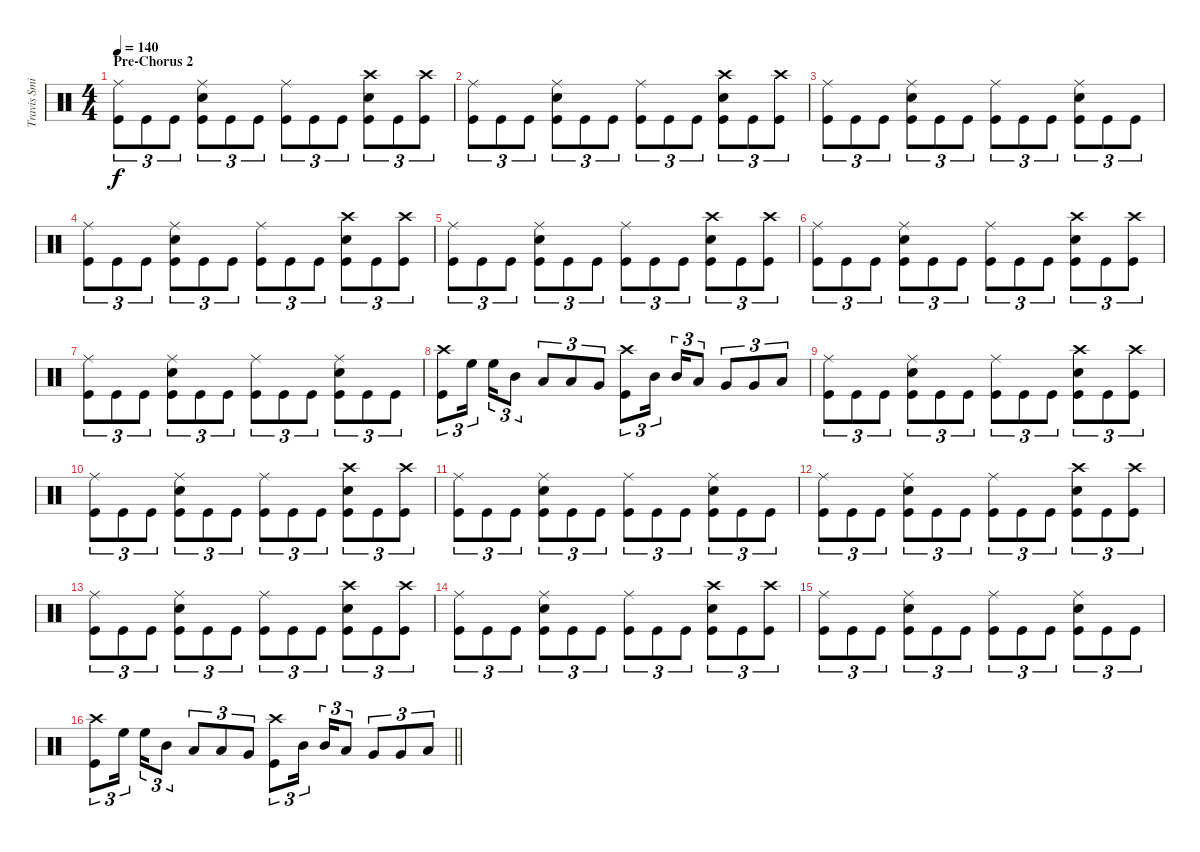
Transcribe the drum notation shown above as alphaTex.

\track ("Travis Smith" "Travis Smi") {instrument percussion}
\staff {score}
\articulation defaults
\ts (4 4)
\section ("" "Pre-Chorus 2")
\tempo 140
\clef neutral
\ks c
("Ride (middle)" "Kick (hit)").8{tu (3 2) dy f} "Kick (hit)".8{tu (3 2)} "Kick (hit)".8{tu (3 2)} ("Ride (middle)" "Snare (hit) 2" "Kick (hit)").8{tu (3 2)} "Kick (hit)".8{tu (3 2)} "Kick (hit)".8{tu (3 2)} ("Ride (middle)" "Kick (hit)").8{tu (3 2)} "Kick (hit)".8{tu (3 2)} "Kick (hit)".8{tu (3 2)} ("Crash high (hit)" "Snare (hit) 2" "Kick (hit)").8{tu (3 2)} "Kick (hit)".8{tu (3 2)} ("Crash high (hit)" "Kick (hit)").8{tu (3 2)} |
("Ride (middle)" "Kick (hit)").8{tu (3 2)} "Kick (hit)".8{tu (3 2)} "Kick (hit)".8{tu (3 2)} ("Ride (middle)" "Snare (hit) 2" "Kick (hit)").8{tu (3 2)} "Kick (hit)".8{tu (3 2)} "Kick (hit)".8{tu (3 2)} ("Ride (middle)" "Kick (hit)").8{tu (3 2)} "Kick (hit)".8{tu (3 2)} "Kick (hit)".8{tu (3 2)} ("Crash high (hit)" "Snare (hit) 2" "Kick (hit)").8{tu (3 2)} "Kick (hit)".8{tu (3 2)} ("Crash high (hit)" "Kick (hit)").8{tu (3 2)} |
("Ride (middle)" "Kick (hit)").8{tu (3 2)} "Kick (hit)".8{tu (3 2)} "Kick (hit)".8{tu (3 2)} ("Ride (middle)" "Snare (hit) 2" "Kick (hit)").8{tu (3 2)} "Kick (hit)".8{tu (3 2)} "Kick (hit)".8{tu (3 2)} ("Ride (middle)" "Kick (hit)").8{tu (3 2)} "Kick (hit)".8{tu (3 2)} "Kick (hit)".8{tu (3 2)} ("Ride (middle)" "Snare (hit) 2" "Kick (hit)").8{tu (3 2)} "Kick (hit)".8{tu (3 2)} "Kick (hit)".8{tu (3 2)} |
("Ride (middle)" "Kick (hit)").8{tu (3 2)} "Kick (hit)".8{tu (3 2)} "Kick (hit)".8{tu (3 2)} ("Ride (middle)" "Snare (hit) 2" "Kick (hit)").8{tu (3 2)} "Kick (hit)".8{tu (3 2)} "Kick (hit)".8{tu (3 2)} ("Ride (middle)" "Kick (hit)").8{tu (3 2)} "Kick (hit)".8{tu (3 2)} "Kick (hit)".8{tu (3 2)} ("Crash high (hit)" "Snare (hit) 2" "Kick (hit)").8{tu (3 2)} "Kick (hit)".8{tu (3 2)} ("Crash high (hit)" "Kick (hit)").8{tu (3 2)} |
("Ride (middle)" "Kick (hit)").8{tu (3 2)} "Kick (hit)".8{tu (3 2)} "Kick (hit)".8{tu (3 2)} ("Ride (middle)" "Snare (hit) 2" "Kick (hit)").8{tu (3 2)} "Kick (hit)".8{tu (3 2)} "Kick (hit)".8{tu (3 2)} ("Ride (middle)" "Kick (hit)").8{tu (3 2)} "Kick (hit)".8{tu (3 2)} "Kick (hit)".8{tu (3 2)} ("Crash high (hit)" "Snare (hit) 2" "Kick (hit)").8{tu (3 2)} "Kick (hit)".8{tu (3 2)} ("Crash high (hit)" "Kick (hit)").8{tu (3 2)} |
("Ride (middle)" "Kick (hit)").8{tu (3 2)} "Kick (hit)".8{tu (3 2)} "Kick (hit)".8{tu (3 2)} ("Ride (middle)" "Snare (hit) 2" "Kick (hit)").8{tu (3 2)} "Kick (hit)".8{tu (3 2)} "Kick (hit)".8{tu (3 2)} ("Ride (middle)" "Kick (hit)").8{tu (3 2)} "Kick (hit)".8{tu (3 2)} "Kick (hit)".8{tu (3 2)} ("Crash high (hit)" "Snare (hit) 2" "Kick (hit)").8{tu (3 2)} "Kick (hit)".8{tu (3 2)} ("Crash high (hit)" "Kick (hit)").8{tu (3 2)} |
("Ride (middle)" "Kick (hit)").8{tu (3 2)} "Kick (hit)".8{tu (3 2)} "Kick (hit)".8{tu (3 2)} ("Ride (middle)" "Snare (hit) 2" "Kick (hit)").8{tu (3 2)} "Kick (hit)".8{tu (3 2)} "Kick (hit)".8{tu (3 2)} ("Ride (middle)" "Kick (hit)").8{tu (3 2)} "Kick (hit)".8{tu (3 2)} "Kick (hit)".8{tu (3 2)} ("Ride (middle)" "Snare (hit) 2" "Kick (hit)").8{tu (3 2)} "Kick (hit)".8{tu (3 2)} "Kick (hit)".8{tu (3 2)} |
("Crash high (hit)" "Kick (hit)").8{tu (3 2)} "High Floor Tom (hit)".16{tu (3 2) beam splitsecondary} "High Floor Tom (hit)".16{tu (3 2)} "Mid Tom (hit)".8{tu (3 2)} "Low Tom (hit)".8{tu (3 2)} "Low Tom (hit)".8{tu (3 2)} "Very Low Tom (hit)".8{tu (3 2)} ("Crash high (hit)" "Kick (hit)").8{tu (3 2)} "Mid Tom (hit)".16{tu (3 2) beam splitsecondary} "Mid Tom (hit)".16{tu (3 2)} "Low Tom (hit)".8{tu (3 2)} "Very Low Tom (hit)".8{tu (3 2)} "Very Low Tom (hit)".8{tu (3 2)} "Low Floor Tom (hit)".8{tu (3 2)} |
("Ride (middle)" "Kick (hit)").8{tu (3 2)} "Kick (hit)".8{tu (3 2)} "Kick (hit)".8{tu (3 2)} ("Ride (middle)" "Snare (hit) 2" "Kick (hit)").8{tu (3 2)} "Kick (hit)".8{tu (3 2)} "Kick (hit)".8{tu (3 2)} ("Ride (middle)" "Kick (hit)").8{tu (3 2)} "Kick (hit)".8{tu (3 2)} "Kick (hit)".8{tu (3 2)} ("Crash high (hit)" "Snare (hit) 2" "Kick (hit)").8{tu (3 2)} "Kick (hit)".8{tu (3 2)} ("Crash high (hit)" "Kick (hit)").8{tu (3 2)} |
("Ride (middle)" "Kick (hit)").8{tu (3 2)} "Kick (hit)".8{tu (3 2)} "Kick (hit)".8{tu (3 2)} ("Ride (middle)" "Snare (hit) 2" "Kick (hit)").8{tu (3 2)} "Kick (hit)".8{tu (3 2)} "Kick (hit)".8{tu (3 2)} ("Ride (middle)" "Kick (hit)").8{tu (3 2)} "Kick (hit)".8{tu (3 2)} "Kick (hit)".8{tu (3 2)} ("Crash high (hit)" "Snare (hit) 2" "Kick (hit)").8{tu (3 2)} "Kick (hit)".8{tu (3 2)} ("Crash high (hit)" "Kick (hit)").8{tu (3 2)} |
("Ride (middle)" "Kick (hit)").8{tu (3 2)} "Kick (hit)".8{tu (3 2)} "Kick (hit)".8{tu (3 2)} ("Ride (middle)" "Snare (hit) 2" "Kick (hit)").8{tu (3 2)} "Kick (hit)".8{tu (3 2)} "Kick (hit)".8{tu (3 2)} ("Ride (middle)" "Kick (hit)").8{tu (3 2)} "Kick (hit)".8{tu (3 2)} "Kick (hit)".8{tu (3 2)} ("Ride (middle)" "Snare (hit) 2" "Kick (hit)").8{tu (3 2)} "Kick (hit)".8{tu (3 2)} "Kick (hit)".8{tu (3 2)} |
("Ride (middle)" "Kick (hit)").8{tu (3 2)} "Kick (hit)".8{tu (3 2)} "Kick (hit)".8{tu (3 2)} ("Ride (middle)" "Snare (hit) 2" "Kick (hit)").8{tu (3 2)} "Kick (hit)".8{tu (3 2)} "Kick (hit)".8{tu (3 2)} ("Ride (middle)" "Kick (hit)").8{tu (3 2)} "Kick (hit)".8{tu (3 2)} "Kick (hit)".8{tu (3 2)} ("Crash high (hit)" "Snare (hit) 2" "Kick (hit)").8{tu (3 2)} "Kick (hit)".8{tu (3 2)} ("Crash high (hit)" "Kick (hit)").8{tu (3 2)} |
("Ride (middle)" "Kick (hit)").8{tu (3 2)} "Kick (hit)".8{tu (3 2)} "Kick (hit)".8{tu (3 2)} ("Ride (middle)" "Snare (hit) 2" "Kick (hit)").8{tu (3 2)} "Kick (hit)".8{tu (3 2)} "Kick (hit)".8{tu (3 2)} ("Ride (middle)" "Kick (hit)").8{tu (3 2)} "Kick (hit)".8{tu (3 2)} "Kick (hit)".8{tu (3 2)} ("Crash high (hit)" "Snare (hit) 2" "Kick (hit)").8{tu (3 2)} "Kick (hit)".8{tu (3 2)} ("Crash high (hit)" "Kick (hit)").8{tu (3 2)} |
("Ride (middle)" "Kick (hit)").8{tu (3 2)} "Kick (hit)".8{tu (3 2)} "Kick (hit)".8{tu (3 2)} ("Ride (middle)" "Snare (hit) 2" "Kick (hit)").8{tu (3 2)} "Kick (hit)".8{tu (3 2)} "Kick (hit)".8{tu (3 2)} ("Ride (middle)" "Kick (hit)").8{tu (3 2)} "Kick (hit)".8{tu (3 2)} "Kick (hit)".8{tu (3 2)} ("Crash high (hit)" "Snare (hit) 2" "Kick (hit)").8{tu (3 2)} "Kick (hit)".8{tu (3 2)} ("Crash high (hit)" "Kick (hit)").8{tu (3 2)} |
("Ride (middle)" "Kick (hit)").8{tu (3 2)} "Kick (hit)".8{tu (3 2)} "Kick (hit)".8{tu (3 2)} ("Ride (middle)" "Snare (hit) 2" "Kick (hit)").8{tu (3 2)} "Kick (hit)".8{tu (3 2)} "Kick (hit)".8{tu (3 2)} ("Ride (middle)" "Kick (hit)").8{tu (3 2)} "Kick (hit)".8{tu (3 2)} "Kick (hit)".8{tu (3 2)} ("Ride (middle)" "Snare (hit) 2" "Kick (hit)").8{tu (3 2)} "Kick (hit)".8{tu (3 2)} "Kick (hit)".8{tu (3 2)} |
\barLineRight lightlight
("Crash high (hit)" "Kick (hit)").8{tu (3 2)} "High Floor Tom (hit)".16{tu (3 2) beam splitsecondary} "High Floor Tom (hit)".16{tu (3 2)} "Mid Tom (hit)".8{tu (3 2)} "Low Tom (hit)".8{tu (3 2)} "Low Tom (hit)".8{tu (3 2)} "Very Low Tom (hit)".8{tu (3 2)} ("Crash high (hit)" "Kick (hit)").8{tu (3 2)} "Mid Tom (hit)".16{tu (3 2) beam splitsecondary} "Mid Tom (hit)".16{tu (3 2)} "Low Tom (hit)".8{tu (3 2)} "Very Low Tom (hit)".8{tu (3 2)} "Very Low Tom (hit)".8{tu (3 2)} "Low Floor Tom (hit)".8{tu (3 2)}
